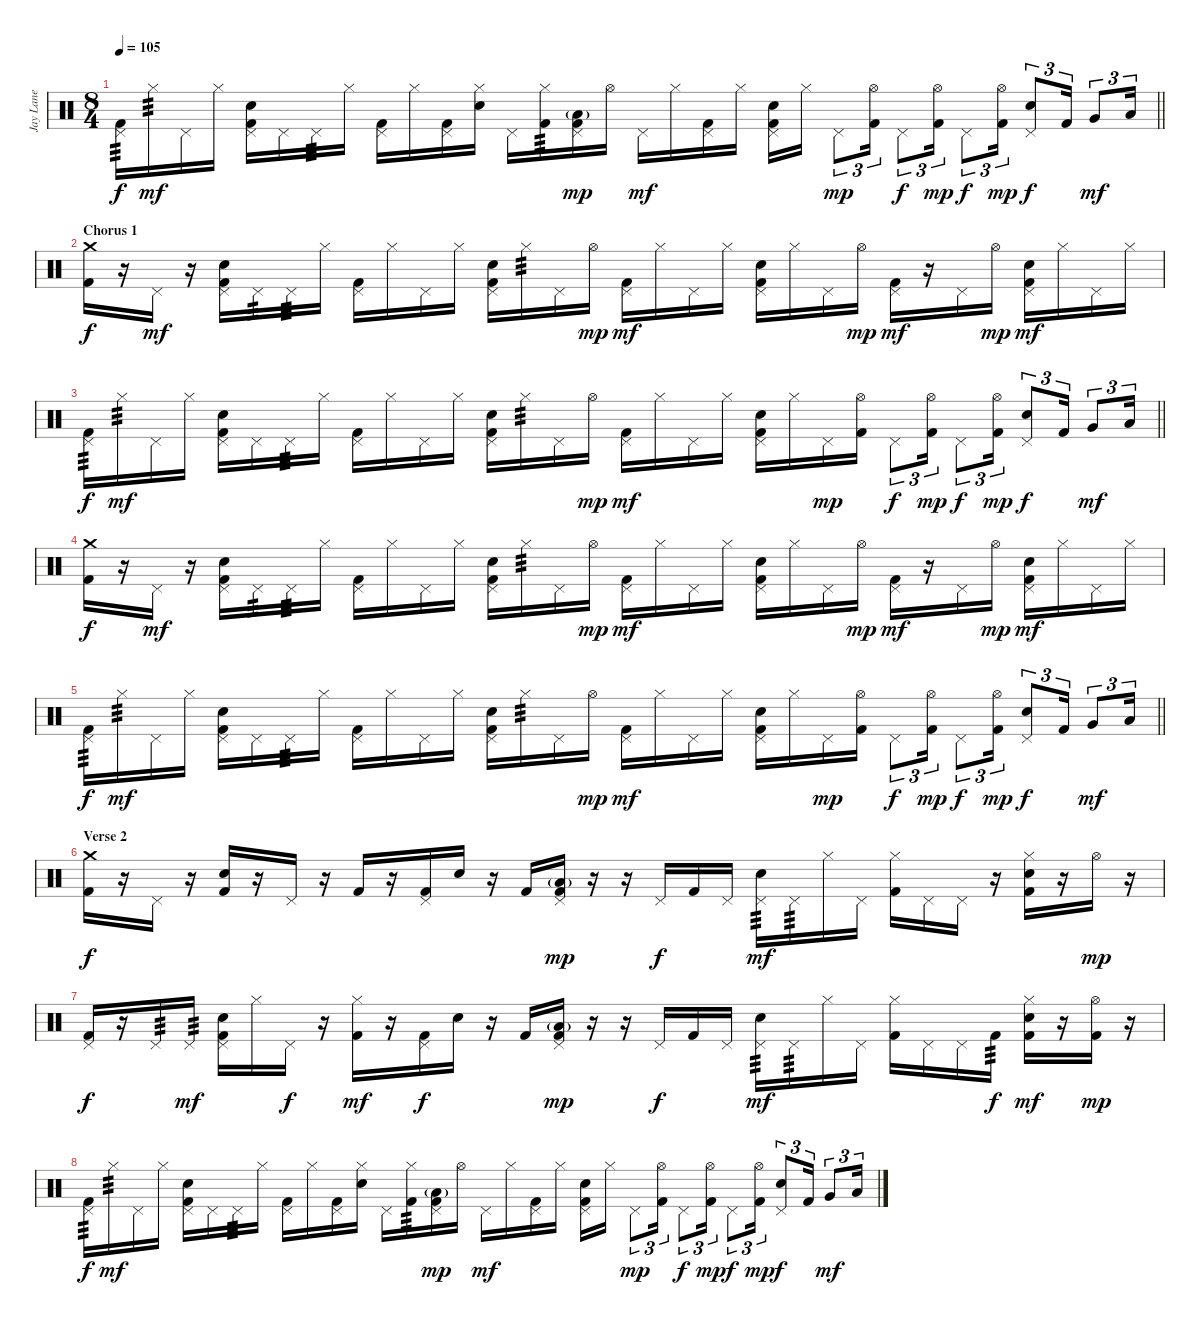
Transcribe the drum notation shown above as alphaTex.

\track ("Jay Lane" "Jay Lane") {instrument percussion}
\staff {score}
\articulation defaults
\ts (8 4)
\tempo 105
\clef neutral
\barLineRight lightlight
\ks c
("Pedal Hi-Hat (hit)" "Kick (hit) 2").16{tp 3 dy f} "Hi-Hat (closed)".16{tp 3 dy mf} "Pedal Hi-Hat (hit)".16 "Hi-Hat (closed)".16 ("Pedal Hi-Hat (hit)" "Electric Snare (hit)" "Kick (hit) 2").16 "Pedal Hi-Hat (hit)".16 "Pedal Hi-Hat (hit)".16{tp 3} "Hi-Hat (closed)".16 ("Pedal Hi-Hat (hit)" "Kick (hit) 2").16 "Hi-Hat (closed)".16 ("Pedal Hi-Hat (hit)" "Kick (hit) 2").16 ("Hi-Hat (closed)" "Electric Snare (hit)").16 "Pedal Hi-Hat (hit)".16 ("Hi-Hat (closed)" "Kick (hit) 2").16{tp 3} ("Pedal Hi-Hat (hit)" "Low Floor Tom (hit)"{g} "Kick (hit) 2").16{dy mp} "Hi-Hat (open)".16 "Pedal Hi-Hat (hit)".16{dy mf} "Hi-Hat (closed)".16 ("Pedal Hi-Hat (hit)" "Kick (hit) 2").16 "Hi-Hat (closed)".16 ("Pedal Hi-Hat (hit)" "Electric Snare (hit)" "Kick (hit) 2").16 "Hi-Hat (closed)".16 "Pedal Hi-Hat (hit)".8{tu (3 2) dy mp} ("Hi-Hat (open)" "Kick (hit) 2").16{tu (3 2)} "Pedal Hi-Hat (hit)".8{tu (3 2) dy f} ("Hi-Hat (open)" "Kick (hit) 2").16{tu (3 2) dy mp} "Pedal Hi-Hat (hit)".8{tu (3 2) dy f} ("Hi-Hat (open)" "Kick (hit) 2").16{tu (3 2) dy mp} ("Pedal Hi-Hat (hit)" "Electric Snare (hit)").8{tu (3 2) dy f} "Kick (hit) 2".16{tu (3 2)} "Very Low Tom (hit)".8{tu (3 2) dy mf} "Low Floor Tom (hit)".16{tu (3 2)} |
\section ("" "Chorus 1")
("Crash medium (hit)" "Kick (hit) 2").16{dy f} r.16 "Pedal Hi-Hat (hit)".16{dy mf} r.16 ("Pedal Hi-Hat (hit)" "Electric Snare (hit)" "Kick (hit) 2").16 "Pedal Hi-Hat (hit)".16{tp 3} "Pedal Hi-Hat (hit)".16{tp 3} "Hi-Hat (closed)".16 ("Pedal Hi-Hat (hit)" "Kick (hit) 2").16 "Hi-Hat (closed)".16 "Pedal Hi-Hat (hit)".16 "Hi-Hat (closed)".16 ("Pedal Hi-Hat (hit)" "Electric Snare (hit)" "Kick (hit) 2").16 "Hi-Hat (closed)".16{tp 3} "Pedal Hi-Hat (hit)".16 "Hi-Hat (open)".16{dy mp} ("Pedal Hi-Hat (hit)" "Kick (hit) 2").16{dy mf} "Hi-Hat (closed)".16 "Pedal Hi-Hat (hit)".16 "Hi-Hat (closed)".16 ("Pedal Hi-Hat (hit)" "Electric Snare (hit)" "Kick (hit) 2").16 "Hi-Hat (closed)".16 "Pedal Hi-Hat (hit)".16 "Hi-Hat (open)".16{dy mp} ("Pedal Hi-Hat (hit)" "Kick (hit) 2").16{dy mf} r.16 "Pedal Hi-Hat (hit)".16 "Hi-Hat (open)".16{dy mp} ("Pedal Hi-Hat (hit)" "Electric Snare (hit)" "Kick (hit) 2").16{dy mf} "Hi-Hat (closed)".16 "Pedal Hi-Hat (hit)".16 "Hi-Hat (closed)".16 |
\barLineRight lightlight
("Pedal Hi-Hat (hit)" "Kick (hit) 2").16{tp 3 dy f} "Hi-Hat (closed)".16{tp 3 dy mf} "Pedal Hi-Hat (hit)".16 "Hi-Hat (closed)".16 ("Pedal Hi-Hat (hit)" "Electric Snare (hit)" "Kick (hit) 2").16 "Pedal Hi-Hat (hit)".16 "Pedal Hi-Hat (hit)".16{tp 3} "Hi-Hat (closed)".16 ("Pedal Hi-Hat (hit)" "Kick (hit) 2").16 "Hi-Hat (closed)".16 "Pedal Hi-Hat (hit)".16 "Hi-Hat (closed)".16 ("Pedal Hi-Hat (hit)" "Electric Snare (hit)" "Kick (hit) 2").16 "Hi-Hat (closed)".16{tp 3} "Pedal Hi-Hat (hit)".16 "Hi-Hat (open)".16{dy mp} ("Pedal Hi-Hat (hit)" "Kick (hit) 2").16{dy mf} "Hi-Hat (closed)".16 "Pedal Hi-Hat (hit)".16 "Hi-Hat (closed)".16 ("Pedal Hi-Hat (hit)" "Electric Snare (hit)" "Kick (hit) 2").16 "Hi-Hat (closed)".16 "Pedal Hi-Hat (hit)".16{dy mp} ("Hi-Hat (open)" "Kick (hit) 2").16 "Pedal Hi-Hat (hit)".8{tu (3 2) dy f} ("Hi-Hat (open)" "Kick (hit) 2").16{tu (3 2) dy mp} "Pedal Hi-Hat (hit)".8{tu (3 2) dy f} ("Hi-Hat (open)" "Kick (hit) 2").16{tu (3 2) dy mp} ("Pedal Hi-Hat (hit)" "Electric Snare (hit)").8{tu (3 2) dy f} "Kick (hit) 2".16{tu (3 2)} "Very Low Tom (hit)".8{tu (3 2) dy mf} "Low Floor Tom (hit)".16{tu (3 2)} |
("Crash medium (hit)" "Kick (hit) 2").16{dy f} r.16 "Pedal Hi-Hat (hit)".16{dy mf} r.16 ("Pedal Hi-Hat (hit)" "Electric Snare (hit)" "Kick (hit) 2").16 "Pedal Hi-Hat (hit)".16{tp 3} "Pedal Hi-Hat (hit)".16{tp 3} "Hi-Hat (closed)".16 ("Pedal Hi-Hat (hit)" "Kick (hit) 2").16 "Hi-Hat (closed)".16 "Pedal Hi-Hat (hit)".16 "Hi-Hat (closed)".16 ("Pedal Hi-Hat (hit)" "Electric Snare (hit)" "Kick (hit) 2").16 "Hi-Hat (closed)".16{tp 3} "Pedal Hi-Hat (hit)".16 "Hi-Hat (open)".16{dy mp} ("Pedal Hi-Hat (hit)" "Kick (hit) 2").16{dy mf} "Hi-Hat (closed)".16 "Pedal Hi-Hat (hit)".16 "Hi-Hat (closed)".16 ("Pedal Hi-Hat (hit)" "Electric Snare (hit)" "Kick (hit) 2").16 "Hi-Hat (closed)".16 "Pedal Hi-Hat (hit)".16 "Hi-Hat (open)".16{dy mp} ("Pedal Hi-Hat (hit)" "Kick (hit) 2").16{dy mf} r.16 "Pedal Hi-Hat (hit)".16 "Hi-Hat (open)".16{dy mp} ("Pedal Hi-Hat (hit)" "Electric Snare (hit)" "Kick (hit) 2").16{dy mf} "Hi-Hat (closed)".16 "Pedal Hi-Hat (hit)".16 "Hi-Hat (closed)".16 |
\barLineRight lightlight
("Pedal Hi-Hat (hit)" "Kick (hit) 2").16{tp 3 dy f} "Hi-Hat (closed)".16{tp 3 dy mf} "Pedal Hi-Hat (hit)".16 "Hi-Hat (closed)".16 ("Pedal Hi-Hat (hit)" "Electric Snare (hit)" "Kick (hit) 2").16 "Pedal Hi-Hat (hit)".16 "Pedal Hi-Hat (hit)".16{tp 3} "Hi-Hat (closed)".16 ("Pedal Hi-Hat (hit)" "Kick (hit) 2").16 "Hi-Hat (closed)".16 "Pedal Hi-Hat (hit)".16 "Hi-Hat (closed)".16 ("Pedal Hi-Hat (hit)" "Electric Snare (hit)" "Kick (hit) 2").16 "Hi-Hat (closed)".16{tp 3} "Pedal Hi-Hat (hit)".16 "Hi-Hat (open)".16{dy mp} ("Pedal Hi-Hat (hit)" "Kick (hit) 2").16{dy mf} "Hi-Hat (closed)".16 "Pedal Hi-Hat (hit)".16 "Hi-Hat (closed)".16 ("Pedal Hi-Hat (hit)" "Electric Snare (hit)" "Kick (hit) 2").16 "Hi-Hat (closed)".16 "Pedal Hi-Hat (hit)".16{dy mp} ("Hi-Hat (open)" "Kick (hit) 2").16 "Pedal Hi-Hat (hit)".8{tu (3 2) dy f} ("Hi-Hat (open)" "Kick (hit) 2").16{tu (3 2) dy mp} "Pedal Hi-Hat (hit)".8{tu (3 2) dy f} ("Hi-Hat (open)" "Kick (hit) 2").16{tu (3 2) dy mp} ("Pedal Hi-Hat (hit)" "Electric Snare (hit)").8{tu (3 2) dy f} "Kick (hit) 2".16{tu (3 2)} "Very Low Tom (hit)".8{tu (3 2) dy mf} "Low Floor Tom (hit)".16{tu (3 2)} |
\section ("" "Verse 2")
("Crash medium (hit)" "Kick (hit) 2").16{dy f} r.16 "Pedal Hi-Hat (hit)".16 r.16 ("Electric Snare (hit)" "Kick (hit) 2").16 r.16 "Pedal Hi-Hat (hit)".16 r.16 "Kick (hit) 2".16 r.16 ("Pedal Hi-Hat (hit)" "Kick (hit) 2").16 "Electric Snare (hit)".16 r.16 "Kick (hit) 2".16 ("Pedal Hi-Hat (hit)" "Low Floor Tom (hit)"{g} "Kick (hit) 2").16{dy mp} r.16 r.16 "Pedal Hi-Hat (hit)".16{dy f} "Kick (hit) 2".16 "Pedal Hi-Hat (hit)".16 ("Pedal Hi-Hat (hit)" "Electric Snare (hit)").16{tp 3 dy mf} "Pedal Hi-Hat (hit)".16{tp 3} "Hi-Hat (closed)".16 "Pedal Hi-Hat (hit)".16 ("Hi-Hat (closed)" "Kick (hit) 2").16 "Pedal Hi-Hat (hit)".16 "Pedal Hi-Hat (hit)".16 r.16 ("Hi-Hat (closed)" "Electric Snare (hit)" "Kick (hit) 2").16 r.16 "Hi-Hat (open)".16{dy mp} r.16 |
("Pedal Hi-Hat (hit)" "Kick (hit) 2").16{dy f} r.16 "Pedal Hi-Hat (hit)".16{tp 3} "Pedal Hi-Hat (hit)".16{tp 3 dy mf} ("Pedal Hi-Hat (hit)" "Electric Snare (hit)" "Kick (hit) 2").16 "Hi-Hat (closed)".16 "Pedal Hi-Hat (hit)".16{dy f} r.16 ("Hi-Hat (closed)" "Kick (hit) 2").16{dy mf} r.16 ("Pedal Hi-Hat (hit)" "Kick (hit) 2").16{dy f} "Electric Snare (hit)".16 r.16 "Kick (hit) 2".16 ("Pedal Hi-Hat (hit)" "Low Floor Tom (hit)"{g} "Kick (hit) 2").16{dy mp} r.16 r.16 "Pedal Hi-Hat (hit)".16{dy f} "Kick (hit) 2".16 "Pedal Hi-Hat (hit)".16 ("Pedal Hi-Hat (hit)" "Electric Snare (hit)").16{tp 3 dy mf} "Pedal Hi-Hat (hit)".16{tp 3} "Hi-Hat (closed)".16 "Pedal Hi-Hat (hit)".16 ("Hi-Hat (closed)" "Kick (hit) 2").16 "Pedal Hi-Hat (hit)".16 "Pedal Hi-Hat (hit)".16 "Kick (hit) 2".16{tp 3 dy f} ("Hi-Hat (closed)" "Electric Snare (hit)" "Kick (hit) 2").16{dy mf} r.16 ("Hi-Hat (open)" "Kick (hit) 2").16{dy mp} r.16 |
("Pedal Hi-Hat (hit)" "Kick (hit) 2").16{tp 3 dy f} "Hi-Hat (closed)".16{tp 3 dy mf} "Pedal Hi-Hat (hit)".16 "Hi-Hat (closed)".16 ("Pedal Hi-Hat (hit)" "Electric Snare (hit)" "Kick (hit) 2").16 "Pedal Hi-Hat (hit)".16 "Pedal Hi-Hat (hit)".16{tp 3} "Hi-Hat (closed)".16 ("Pedal Hi-Hat (hit)" "Kick (hit) 2").16 "Hi-Hat (closed)".16 ("Pedal Hi-Hat (hit)" "Kick (hit) 2").16 ("Hi-Hat (closed)" "Electric Snare (hit)").16 "Pedal Hi-Hat (hit)".16 ("Hi-Hat (closed)" "Kick (hit) 2").16{tp 3} ("Pedal Hi-Hat (hit)" "Low Floor Tom (hit)"{g} "Kick (hit) 2").16{dy mp} "Hi-Hat (open)".16 "Pedal Hi-Hat (hit)".16{dy mf} "Hi-Hat (closed)".16 ("Pedal Hi-Hat (hit)" "Kick (hit) 2").16 "Hi-Hat (closed)".16 ("Pedal Hi-Hat (hit)" "Electric Snare (hit)" "Kick (hit) 2").16 "Hi-Hat (closed)".16 "Pedal Hi-Hat (hit)".8{tu (3 2) dy mp} ("Hi-Hat (open)" "Kick (hit) 2").16{tu (3 2)} "Pedal Hi-Hat (hit)".8{tu (3 2) dy f} ("Hi-Hat (open)" "Kick (hit) 2").16{tu (3 2) dy mp} "Pedal Hi-Hat (hit)".8{tu (3 2) dy f} ("Hi-Hat (open)" "Kick (hit) 2").16{tu (3 2) dy mp} ("Pedal Hi-Hat (hit)" "Electric Snare (hit)").8{tu (3 2) dy f} "Kick (hit) 2".16{tu (3 2)} "Very Low Tom (hit)".8{tu (3 2) dy mf} "Low Floor Tom (hit)".16{tu (3 2)}
